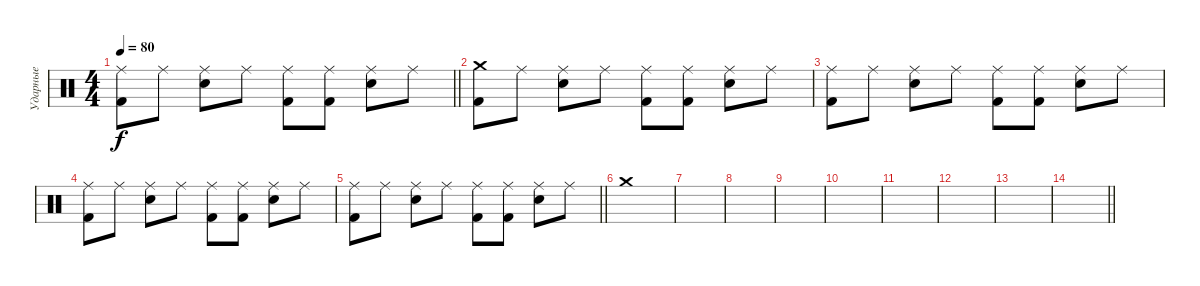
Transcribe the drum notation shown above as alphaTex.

\track ("Ударные" "Ударные") {instrument percussion}
\staff {score}
\articulation defaults
\ts (4 4)
\tempo 80
\clef neutral
\barLineRight lightlight
\ks c
("Ride (middle)" "Kick (hit) 2").8{dy f} "Ride (middle)".8 ("Ride (middle)" "Electric Snare (hit)").8 "Ride (middle)".8 ("Ride (middle)" "Kick (hit) 2").8 ("Ride (middle)" "Kick (hit) 2").8 ("Ride (middle)" "Electric Snare (hit)").8 "Ride (middle)".8 |
("Crash medium (hit)" "Kick (hit) 2").8 "Ride (middle)".8 ("Ride (middle)" "Electric Snare (hit)").8 "Ride (middle)".8 ("Ride (middle)" "Kick (hit) 2").8 ("Ride (middle)" "Kick (hit) 2").8 ("Ride (middle)" "Electric Snare (hit)").8 "Ride (middle)".8 |
("Ride (middle)" "Kick (hit) 2").8 "Ride (middle)".8 ("Ride (middle)" "Electric Snare (hit)").8 "Ride (middle)".8 ("Ride (middle)" "Kick (hit) 2").8 ("Ride (middle)" "Kick (hit) 2").8 ("Ride (middle)" "Electric Snare (hit)").8 "Ride (middle)".8 |
("Ride (middle)" "Kick (hit) 2").8 "Ride (middle)".8 ("Ride (middle)" "Electric Snare (hit)").8 "Ride (middle)".8 ("Ride (middle)" "Kick (hit) 2").8 ("Ride (middle)" "Kick (hit) 2").8 ("Ride (middle)" "Electric Snare (hit)").8 "Ride (middle)".8 |
\barLineRight lightlight
("Ride (middle)" "Kick (hit) 2").8 "Ride (middle)".8 ("Ride (middle)" "Electric Snare (hit)").8 "Ride (middle)".8 ("Ride (middle)" "Kick (hit) 2").8 ("Ride (middle)" "Kick (hit) 2").8 ("Ride (middle)" "Electric Snare (hit)").8 "Ride (middle)".8 |
"Crash medium (hit)".1 |
|
|
|
|
|
|
|
\barLineRight lightlight
